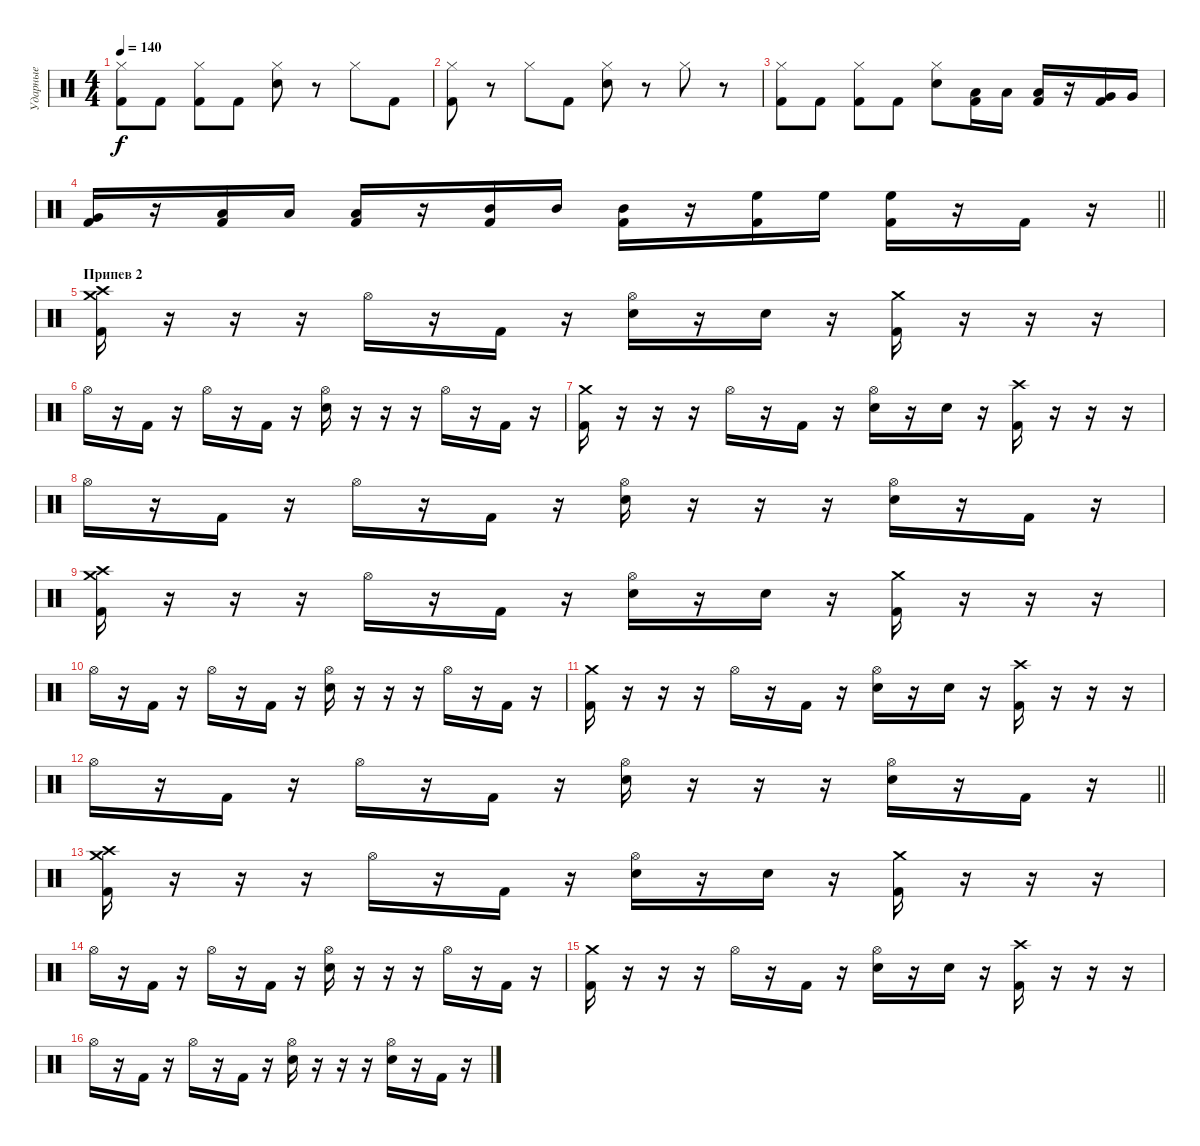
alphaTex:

\track ("Ударные" "Ударные") {instrument percussion}
\staff {score}
\articulation defaults
\ts (4 4)
\tempo 140
\clef neutral
\ks c
("Hi-Hat (closed)" "Kick (hit) 2").8{dy f} "Kick (hit) 2".8 ("Hi-Hat (closed)" "Kick (hit) 2").8 "Kick (hit) 2".8 ("Hi-Hat (closed)" "Snare (hit) 2").8 r.8 "Hi-Hat (closed)".8 "Kick (hit) 2".8 |
("Hi-Hat (closed)" "Kick (hit) 2").8 r.8 "Hi-Hat (closed)".8 "Kick (hit) 2".8 ("Hi-Hat (closed)" "Snare (hit) 2").8 r.8 "Hi-Hat (closed)".8 r.8 |
("Hi-Hat (closed)" "Kick (hit) 2").8 "Kick (hit) 2".8 ("Hi-Hat (closed)" "Kick (hit) 2").8 "Kick (hit) 2".8 ("Hi-Hat (closed)" "Snare (hit) 2").8 ("Low Floor Tom (hit)" "Kick (hit) 2").16 "Low Floor Tom (hit)".16 ("Low Floor Tom (hit)" "Kick (hit) 2").16 r.16 ("Very Low Tom (hit)" "Kick (hit) 2").16 "Very Low Tom (hit)".16 |
\barLineRight lightlight
("Very Low Tom (hit)" "Kick (hit) 2").16 r.16 ("Low Tom (hit)" "Kick (hit) 2").16 "Low Tom (hit)".16 ("Low Tom (hit)" "Kick (hit) 2").16 r.16 ("Mid Tom (hit)" "Kick (hit) 2").16 "Mid Tom (hit)".16 ("Mid Tom (hit)" "Kick (hit) 2").16 r.16 ("High Floor Tom (hit)" "Kick (hit) 2").16 "High Floor Tom (hit)".16 ("High Floor Tom (hit)" "Kick (hit) 2").16 r.16 "Kick (hit) 2".16 r.16 |
\section ("" "Припев 2")
("Crash high (hit)" "Crash medium (hit)" "Kick (hit) 2").16 r.16 r.16 r.16 "Hi-Hat (open)".16 r.16 "Kick (hit) 2".16 r.16 ("Hi-Hat (open)" "Snare (hit) 2").16 r.16 "Snare (hit) 2".16 r.16 ("Crash medium (hit)" "Kick (hit) 2").16 r.16 r.16 r.16 |
"Hi-Hat (open)".16 r.16 "Kick (hit) 2".16 r.16 "Hi-Hat (open)".16 r.16 "Kick (hit) 2".16 r.16 ("Hi-Hat (open)" "Snare (hit) 2").16 r.16 r.16 r.16 "Hi-Hat (open)".16 r.16 "Kick (hit) 2".16 r.16 |
("Crash medium (hit)" "Kick (hit) 2").16 r.16 r.16 r.16 "Hi-Hat (open)".16 r.16 "Kick (hit) 2".16 r.16 ("Hi-Hat (open)" "Snare (hit) 2").16 r.16 "Snare (hit) 2".16 r.16 ("Crash high (hit)" "Kick (hit) 2").16 r.16 r.16 r.16 |
"Hi-Hat (open)".16 r.16 "Kick (hit) 2".16 r.16 "Hi-Hat (open)".16 r.16 "Kick (hit) 2".16 r.16 ("Hi-Hat (open)" "Snare (hit) 2").16 r.16 r.16 r.16 ("Hi-Hat (open)" "Snare (hit) 2").16 r.16 "Kick (hit) 2".16 r.16 |
("Crash high (hit)" "Crash medium (hit)" "Kick (hit) 2").16 r.16 r.16 r.16 "Hi-Hat (open)".16 r.16 "Kick (hit) 2".16 r.16 ("Hi-Hat (open)" "Snare (hit) 2").16 r.16 "Snare (hit) 2".16 r.16 ("Crash medium (hit)" "Kick (hit) 2").16 r.16 r.16 r.16 |
"Hi-Hat (open)".16 r.16 "Kick (hit) 2".16 r.16 "Hi-Hat (open)".16 r.16 "Kick (hit) 2".16 r.16 ("Hi-Hat (open)" "Snare (hit) 2").16 r.16 r.16 r.16 "Hi-Hat (open)".16 r.16 "Kick (hit) 2".16 r.16 |
("Crash medium (hit)" "Kick (hit) 2").16 r.16 r.16 r.16 "Hi-Hat (open)".16 r.16 "Kick (hit) 2".16 r.16 ("Hi-Hat (open)" "Snare (hit) 2").16 r.16 "Snare (hit) 2".16 r.16 ("Crash high (hit)" "Kick (hit) 2").16 r.16 r.16 r.16 |
\barLineRight lightlight "Hi-Hat (open)".16
r.16 "Kick (hit) 2".16 r.16 "Hi-Hat (open)".16 r.16 "Kick (hit) 2".16 r.16 ("Hi-Hat (open)" "Snare (hit) 2").16 r.16 r.16 r.16 ("Hi-Hat (open)" "Snare (hit) 2").16 r.16 "Kick (hit) 2".16 r.16 |
("Crash high (hit)" "Crash medium (hit)" "Kick (hit) 2").16 r.16 r.16 r.16 "Hi-Hat (open)".16 r.16 "Kick (hit) 2".16 r.16 ("Hi-Hat (open)" "Snare (hit) 2").16 r.16 "Snare (hit) 2".16 r.16 ("Crash medium (hit)" "Kick (hit) 2").16 r.16 r.16 r.16 |
"Hi-Hat (open)".16 r.16 "Kick (hit) 2".16 r.16 "Hi-Hat (open)".16 r.16 "Kick (hit) 2".16 r.16 ("Hi-Hat (open)" "Snare (hit) 2").16 r.16 r.16 r.16 "Hi-Hat (open)".16 r.16 "Kick (hit) 2".16 r.16 |
("Crash medium (hit)" "Kick (hit) 2").16 r.16 r.16 r.16 "Hi-Hat (open)".16 r.16 "Kick (hit) 2".16 r.16 ("Hi-Hat (open)" "Snare (hit) 2").16 r.16 "Snare (hit) 2".16 r.16 ("Crash high (hit)" "Kick (hit) 2").16 r.16 r.16 r.16 |
"Hi-Hat (open)".16 r.16 "Kick (hit) 2".16 r.16 "Hi-Hat (open)".16 r.16 "Kick (hit) 2".16 r.16 ("Hi-Hat (open)" "Snare (hit) 2").16 r.16 r.16 r.16 ("Hi-Hat (open)" "Snare (hit) 2").16 r.16 "Kick (hit) 2".16 r.16
